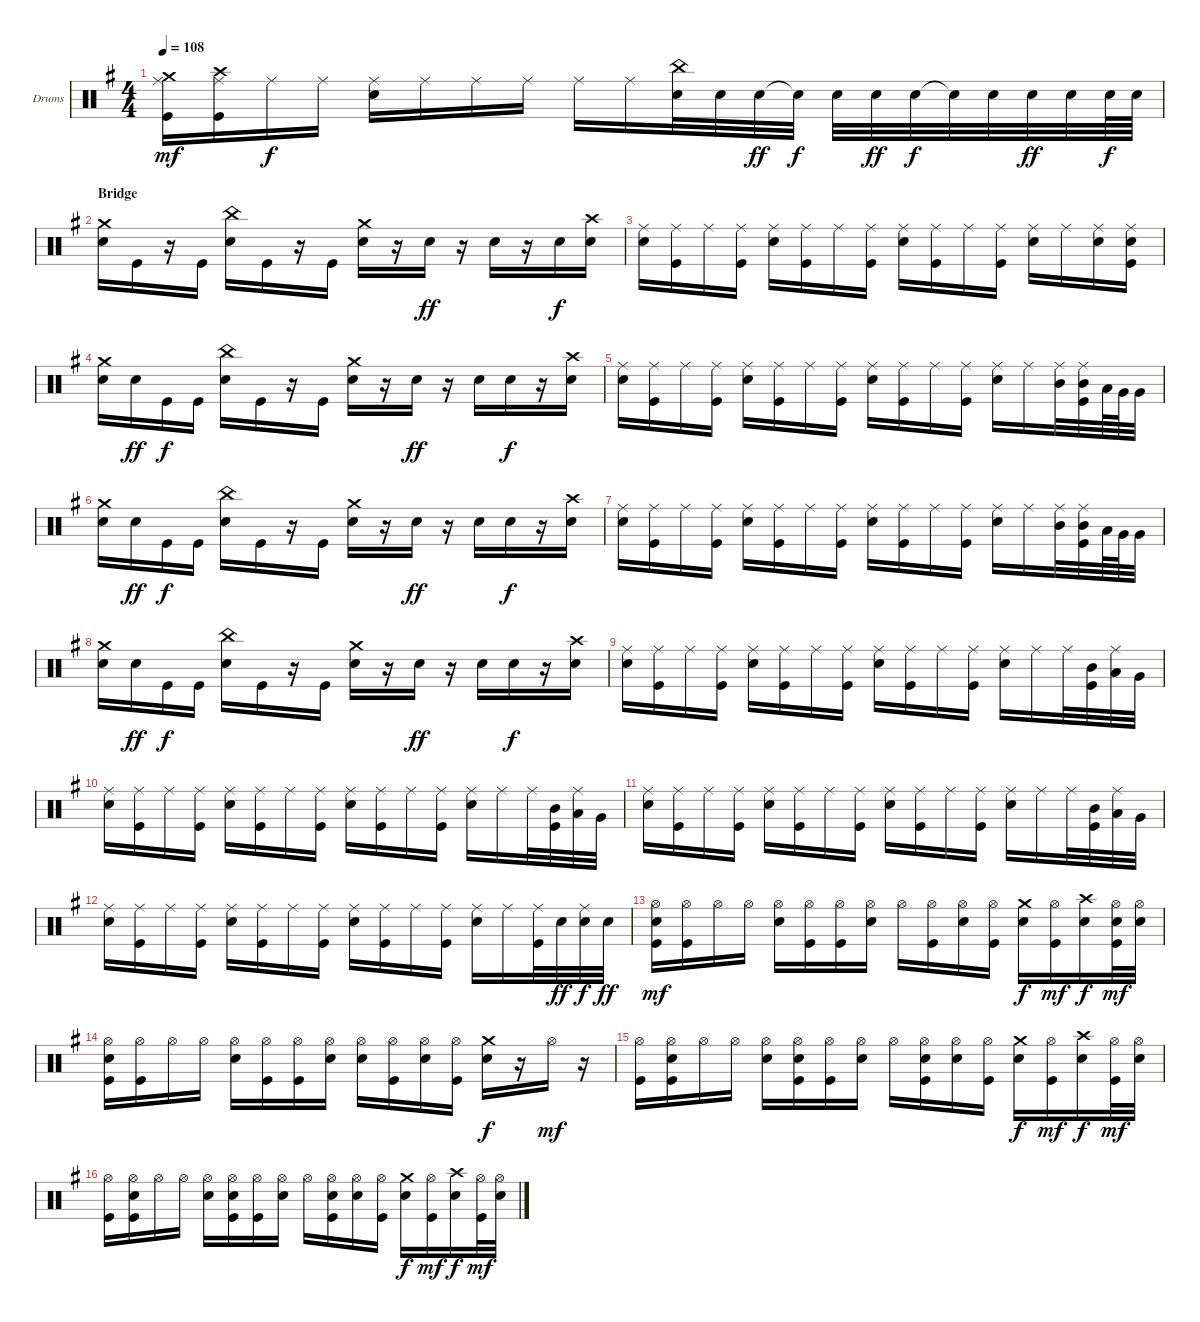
\defaultSystemsLayout 4
\bracketExtendMode groupsimilarinstruments
\firstSystemTrackNameOrientation horizontal
\otherSystemsTrackNameOrientation horizontal
\track ("Drum" "Drums") {instrument percussion}
\staff {score}
\articulation defaults
\ts (4 4)
\tempo 108
\clef neutral
\scale
1.04288
\ks g
("Crash medium (hit)" "Ride (middle)" "Kick (hit)").16{dy mf} ("Crash high (hit)" "Ride (middle)" "Kick (hit)").16 "Ride (middle)".16{dy f} "Ride (middle)".16 ("Ride (middle)" "Snare (hit) 2").16 "Ride (middle)".16 "Ride (middle)".16 "Ride (middle)".16 "Ride (middle)".16 "Ride (middle)".16 ("China (hit)" "Snare (hit) 2").32 "Snare (hit) 2".32 "Snare (hit) 2".32{dy ff} "Snare (hit) 2"{t}.32{dy f} "Snare (hit) 2".32 "Snare (hit) 2".32{dy ff} "Snare (hit) 2".32{dy f} "Snare (hit) 2"{t}.32 "Snare (hit) 2".32 "Snare (hit) 2".32{dy ff} "Snare (hit) 2".32 "Snare (hit) 2".64{dy f} "Snare (hit) 2".64 |
\section ("" "Bridge")
\scale
0.957125 ("Crash medium (hit)" "Snare (hit) 2").16 "Kick (hit)".16 r.16 "Kick (hit)".16 ("China (hit)" "Snare (hit) 2").16 "Kick (hit)".16 r.16 "Kick (hit)".16 ("Crash medium (hit)" "Snare (hit) 2").16 r.16 "Snare (hit) 2".16{dy ff} r.16 "Snare (hit) 2".16 r.16 "Snare (hit) 2".16{dy f} ("Crash high (hit)" "Snare (hit) 2").16 |
\scale
1.04288 ("Ride (middle)" "Snare (hit) 2").16 ("Ride (middle)" "Kick (hit)").16 "Ride (middle)".16 ("Ride (middle)" "Kick (hit)").16 ("Ride (middle)" "Snare (hit) 2").16 ("Ride (middle)" "Kick (hit)").16 "Ride (middle)".16 ("Ride (middle)" "Kick (hit)").16 ("Ride (middle)" "Snare (hit) 2").16 ("Ride (middle)" "Kick (hit)").16 "Ride (middle)".16 ("Ride (middle)" "Kick (hit)").16 ("Ride (middle)" "Snare (hit) 2").16 "Ride (middle)".16 ("Ride (middle)" "Snare (hit) 2").16 ("Ride (middle)" "Snare (hit) 2" "Kick (hit)").16 |
\scale
0.957125 ("Crash medium (hit)" "Snare (hit) 2").16 "Snare (hit) 2".16{dy ff} "Kick (hit)".16{dy f} "Kick (hit)".16 ("China (hit)" "Snare (hit) 2").16 "Kick (hit)".16 r.16 "Kick (hit)".16 ("Crash medium (hit)" "Snare (hit) 2").16 r.16 "Snare (hit) 2".16{dy ff} r.16 "Snare (hit) 2".16 "Snare (hit) 2".16{dy f} r.16 ("Crash high (hit)" "Snare (hit) 2").16 |
\scale
1.04288 ("Ride (middle)" "Snare (hit) 2").16 ("Ride (middle)" "Kick (hit)").16 "Ride (middle)".16 ("Ride (middle)" "Kick (hit)").16 ("Ride (middle)" "Snare (hit) 2").16 ("Ride (middle)" "Kick (hit)").16 "Ride (middle)".16 ("Ride (middle)" "Kick (hit)").16 ("Ride (middle)" "Snare (hit) 2").16 ("Ride (middle)" "Kick (hit)").16 "Ride (middle)".16 ("Ride (middle)" "Kick (hit)").16 ("Ride (middle)" "Snare (hit) 2").16 "Ride (middle)".16 ("Mid Tom (hit)" "Ride (middle)").32 ("Mid Tom (hit)" "Ride (middle)" "Kick (hit)").32 "Low Tom (hit)".64 "Very Low Tom (hit)".64 "Very Low Tom (hit)".32 |
\scale
0.957125 ("Crash medium (hit)" "Snare (hit) 2").16 "Snare (hit) 2".16{dy ff} "Kick (hit)".16{dy f} "Kick (hit)".16 ("China (hit)" "Snare (hit) 2").16 "Kick (hit)".16 r.16 "Kick (hit)".16 ("Crash medium (hit)" "Snare (hit) 2").16 r.16 "Snare (hit) 2".16{dy ff} r.16 "Snare (hit) 2".16 "Snare (hit) 2".16{dy f} r.16 ("Crash high (hit)" "Snare (hit) 2").16 |
\scale
1.04288 ("Ride (middle)" "Snare (hit) 2").16 ("Ride (middle)" "Kick (hit)").16 "Ride (middle)".16 ("Ride (middle)" "Kick (hit)").16 ("Ride (middle)" "Snare (hit) 2").16 ("Ride (middle)" "Kick (hit)").16 "Ride (middle)".16 ("Ride (middle)" "Kick (hit)").16 ("Ride (middle)" "Snare (hit) 2").16 ("Ride (middle)" "Kick (hit)").16 "Ride (middle)".16 ("Ride (middle)" "Kick (hit)").16 ("Ride (middle)" "Snare (hit) 2").16 "Ride (middle)".16 ("Mid Tom (hit)" "Ride (middle)").32 ("Mid Tom (hit)" "Ride (middle)" "Kick (hit)").32 "Low Tom (hit)".64 "Very Low Tom (hit)".64 "Very Low Tom (hit)".32 |
\scale
0.957125 ("Crash medium (hit)" "Snare (hit) 2").16 "Snare (hit) 2".16{dy ff} "Kick (hit)".16{dy f} "Kick (hit)".16 ("China (hit)" "Snare (hit) 2").16 "Kick (hit)".16 r.16 "Kick (hit)".16 ("Crash medium (hit)" "Snare (hit) 2").16 r.16 "Snare (hit) 2".16{dy ff} r.16 "Snare (hit) 2".16 "Snare (hit) 2".16{dy f} r.16 ("Crash high (hit)" "Snare (hit) 2").16 |
\scale
1.04288 ("Ride (middle)" "Snare (hit) 2").16 ("Ride (middle)" "Kick (hit)").16 "Ride (middle)".16 ("Ride (middle)" "Kick (hit)").16 ("Ride (middle)" "Snare (hit) 2").16 ("Ride (middle)" "Kick (hit)").16 "Ride (middle)".16 ("Ride (middle)" "Kick (hit)").16 ("Ride (middle)" "Snare (hit) 2").16 ("Ride (middle)" "Kick (hit)").16 "Ride (middle)".16 ("Ride (middle)" "Kick (hit)").16 ("Ride (middle)" "Snare (hit) 2").16 "Ride (middle)".16 "Ride (middle)".32 ("Mid Tom (hit)" "Kick (hit)").32 ("Low Tom (hit)" "Ride (middle)").32 "Very Low Tom (hit)".32 |
\scale
0.957125 ("Ride (middle)" "Snare (hit) 2").16 ("Ride (middle)" "Kick (hit)").16 "Ride (middle)".16 ("Ride (middle)" "Kick (hit)").16 ("Ride (middle)" "Snare (hit) 2").16 ("Ride (middle)" "Kick (hit)").16 "Ride (middle)".16 ("Ride (middle)" "Kick (hit)").16 ("Ride (middle)" "Snare (hit) 2").16 ("Ride (middle)" "Kick (hit)").16 "Ride (middle)".16 ("Ride (middle)" "Kick (hit)").16 ("Ride (middle)" "Snare (hit) 2").16 "Ride (middle)".16 "Ride (middle)".32 ("Mid Tom (hit)" "Kick (hit)").32 ("Low Tom (hit)" "Ride (middle)").32 "Very Low Tom (hit)".32 |
\scale
1.04288 ("Ride (middle)" "Snare (hit) 2").16 ("Ride (middle)" "Kick (hit)").16 "Ride (middle)".16 ("Ride (middle)" "Kick (hit)").16 ("Ride (middle)" "Snare (hit) 2").16 ("Ride (middle)" "Kick (hit)").16 "Ride (middle)".16 ("Ride (middle)" "Kick (hit)").16 ("Ride (middle)" "Snare (hit) 2").16 ("Ride (middle)" "Kick (hit)").16 "Ride (middle)".16 ("Ride (middle)" "Kick (hit)").16 ("Ride (middle)" "Snare (hit) 2").16 "Ride (middle)".16 "Ride (middle)".32 ("Mid Tom (hit)" "Kick (hit)").32 ("Low Tom (hit)" "Ride (middle)").32 "Very Low Tom (hit)".32 |
\scale
0.957125 ("Ride (middle)" "Snare (hit) 2").16 ("Ride (middle)" "Kick (hit)").16 "Ride (middle)".16 ("Ride (middle)" "Kick (hit)").16 ("Ride (middle)" "Snare (hit) 2").16 ("Ride (middle)" "Kick (hit)").16 "Ride (middle)".16 ("Ride (middle)" "Kick (hit)").16 ("Ride (middle)" "Snare (hit) 2").16 ("Ride (middle)" "Kick (hit)").16 "Ride (middle)".16 ("Ride (middle)" "Kick (hit)").16 ("Ride (middle)" "Snare (hit) 2").16 "Ride (middle)".16 ("Ride (middle)" "Kick (hit)").32 "Snare (hit) 2".32{dy ff} ("Ride (middle)" "Snare (hit) 2").32{dy f} "Snare (hit) 2".32{dy ff} |
\scale
1.04288 ("Hi-Hat (open)" "Snare (hit) 2" "Kick (hit)").16{dy mf} ("Hi-Hat (open)" "Kick (hit)").16 "Hi-Hat (open)".16 "Hi-Hat (open)".16 ("Hi-Hat (open)" "Snare (hit) 2").16 ("Hi-Hat (open)" "Kick (hit)").16 ("Hi-Hat (open)" "Kick (hit)").16 ("Hi-Hat (open)" "Snare (hit) 2").16 "Hi-Hat (open)".16 ("Hi-Hat (open)" "Kick (hit)").16 ("Hi-Hat (open)" "Snare (hit) 2").16 ("Hi-Hat (open)" "Kick (hit)").16 ("Crash medium (hit)" "Snare (hit) 2").16{dy f} ("Hi-Hat (open)" "Kick (hit)").16{dy mf} ("Crash high (hit)" "Snare (hit) 2").16{dy f} ("Hi-Hat (open)" "Snare (hit) 2" "Kick (hit)").32{dy mf} ("Hi-Hat (open)" "Snare (hit) 2").32 |
\scale
0.957125 ("Hi-Hat (open)" "Snare (hit) 2" "Kick (hit)").16 ("Hi-Hat (open)" "Kick (hit)").16 "Hi-Hat (open)".16 "Hi-Hat (open)".16 ("Hi-Hat (open)" "Snare (hit) 2").16 ("Hi-Hat (open)" "Kick (hit)").16 ("Hi-Hat (open)" "Kick (hit)").16 ("Hi-Hat (open)" "Snare (hit) 2").16 ("Hi-Hat (open)" "Snare (hit) 2").16 ("Hi-Hat (open)" "Kick (hit)").16 ("Hi-Hat (open)" "Snare (hit) 2").16 ("Hi-Hat (open)" "Kick (hit)").16 ("Crash medium (hit)" "Snare (hit) 2").16{dy f} r.16 "Hi-Hat (open)".16{dy mf} r.16 |
\scale
1.04288 ("Hi-Hat (open)" "Kick (hit)").16 ("Hi-Hat (open)" "Snare (hit) 2" "Kick (hit)").16 "Hi-Hat (open)".16 "Hi-Hat (open)".16 ("Hi-Hat (open)" "Snare (hit) 2").16 ("Hi-Hat (open)" "Snare (hit) 2" "Kick (hit)").16 ("Hi-Hat (open)" "Kick (hit)").16 ("Hi-Hat (open)" "Snare (hit) 2").16 "Hi-Hat (open)".16 ("Hi-Hat (open)" "Snare (hit) 2" "Kick (hit)").16 ("Hi-Hat (open)" "Snare (hit) 2").16 ("Hi-Hat (open)" "Kick (hit)").16 ("Crash medium (hit)" "Snare (hit) 2").16{dy f} ("Hi-Hat (open)" "Kick (hit)").16{dy mf} ("Crash high (hit)" "Snare (hit) 2").16{dy f} ("Hi-Hat (open)" "Kick (hit)").32{dy mf} ("Hi-Hat (open)" "Snare (hit) 2").32 |
\scale
0.957125 ("Hi-Hat (open)" "Kick (hit)").16 ("Hi-Hat (open)" "Snare (hit) 2" "Kick (hit)").16 "Hi-Hat (open)".16 "Hi-Hat (open)".16 ("Hi-Hat (open)" "Snare (hit) 2").16 ("Hi-Hat (open)" "Snare (hit) 2" "Kick (hit)").16 ("Hi-Hat (open)" "Kick (hit)").16 ("Hi-Hat (open)" "Snare (hit) 2").16 "Hi-Hat (open)".16 ("Hi-Hat (open)" "Snare (hit) 2" "Kick (hit)").16 ("Hi-Hat (open)" "Snare (hit) 2").16 ("Hi-Hat (open)" "Kick (hit)").16 ("Crash medium (hit)" "Snare (hit) 2").16{dy f} ("Hi-Hat (open)" "Kick (hit)").16{dy mf} ("Crash high (hit)" "Snare (hit) 2").16{dy f} ("Hi-Hat (open)" "Kick (hit)").32{dy mf} ("Hi-Hat (open)" "Snare (hit) 2").32
